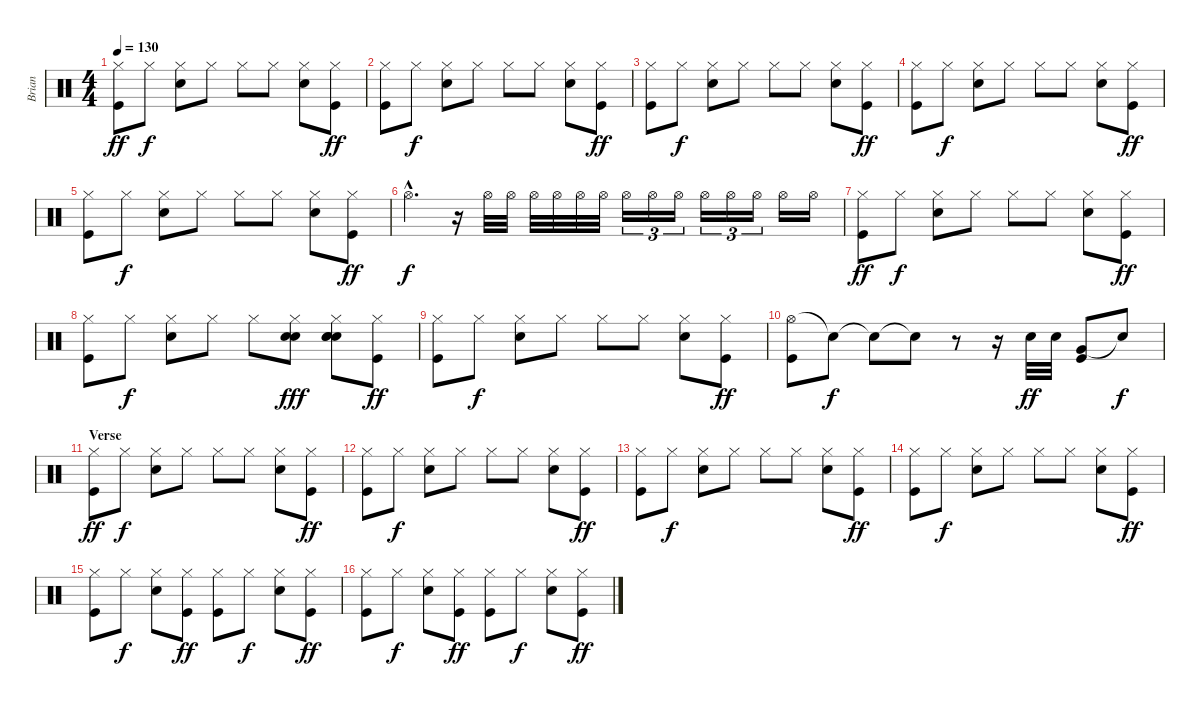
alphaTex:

\track ("Brian" "Brian") {instrument percussion}
\staff {score}
\articulation defaults
\ts (4 4)
\tempo 130
\clef neutral
\ks c
("Hi-Hat (closed)" "Kick (hit)").8{dy ff} "Hi-Hat (closed)".8{dy f} ("Hi-Hat (closed)" "Electric Snare (hit)").8 "Hi-Hat (closed)".8 "Hi-Hat (closed)".8 "Hi-Hat (closed)".8 ("Hi-Hat (closed)" "Electric Snare (hit)").8 ("Hi-Hat (closed)" "Kick (hit)").8{dy ff} |
("Hi-Hat (closed)" "Kick (hit)").8 "Hi-Hat (closed)".8{dy f} ("Hi-Hat (closed)" "Electric Snare (hit)").8 "Hi-Hat (closed)".8 "Hi-Hat (closed)".8 "Hi-Hat (closed)".8 ("Hi-Hat (closed)" "Electric Snare (hit)").8 ("Hi-Hat (closed)" "Kick (hit)").8{dy ff} |
("Hi-Hat (closed)" "Kick (hit)").8 "Hi-Hat (closed)".8{dy f} ("Hi-Hat (closed)" "Electric Snare (hit)").8 "Hi-Hat (closed)".8 "Hi-Hat (closed)".8 "Hi-Hat (closed)".8 ("Hi-Hat (closed)" "Electric Snare (hit)").8 ("Hi-Hat (closed)" "Kick (hit)").8{dy ff} |
("Hi-Hat (closed)" "Kick (hit)").8 "Hi-Hat (closed)".8{dy f} ("Hi-Hat (closed)" "Electric Snare (hit)").8 "Hi-Hat (closed)".8 "Hi-Hat (closed)".8 "Hi-Hat (closed)".8 ("Hi-Hat (closed)" "Electric Snare (hit)").8 ("Hi-Hat (closed)" "Kick (hit)").8{dy ff} |
("Hi-Hat (closed)" "Kick (hit)").8 "Hi-Hat (closed)".8{dy f} ("Hi-Hat (closed)" "Electric Snare (hit)").8 "Hi-Hat (closed)".8 "Hi-Hat (closed)".8 "Hi-Hat (closed)".8 ("Hi-Hat (closed)" "Electric Snare (hit)").8 ("Hi-Hat (closed)" "Kick (hit)").8{dy ff} |
"Hi-Hat (open)"{hac}.4{d dy f} r.16 "Hi-Hat (open)".32 "Hi-Hat (open)".32 "Hi-Hat (open)".32 "Hi-Hat (open)".32 "Hi-Hat (open)".32 "Hi-Hat (open)".32 "Hi-Hat (open)".16{tu (3 2)} "Hi-Hat (open)".16{tu (3 2)} "Hi-Hat (open)".16{tu (3 2)} "Hi-Hat (open)".16{tu (3 2)} "Hi-Hat (open)".16{tu (3 2)} "Hi-Hat (open)".16{tu (3 2)} "Hi-Hat (open)".16 "Hi-Hat (open)".16 |
("Hi-Hat (closed)" "Kick (hit)").8{dy ff} "Hi-Hat (closed)".8{dy f} ("Hi-Hat (closed)" "Electric Snare (hit)").8 "Hi-Hat (closed)".8 "Hi-Hat (closed)".8 "Hi-Hat (closed)".8 ("Hi-Hat (closed)" "Electric Snare (hit)").8 ("Hi-Hat (closed)" "Kick (hit)").8{dy ff} |
("Hi-Hat (closed)" "Kick (hit)").8 "Hi-Hat (closed)".8{dy f} ("Hi-Hat (closed)" "Electric Snare (hit)").8 "Hi-Hat (closed)".8 "Hi-Hat (closed)".8 ("Hand Clap (hit)" "Hi-Hat (closed)" "Hand Clap (hit)").8{dy fff} ("Hand Clap (hit)" "Hi-Hat (closed)" "Hand Clap (hit)" "Electric Snare (hit)").8 ("Hi-Hat (closed)" "Kick (hit)").8{dy ff} |
("Hi-Hat (closed)" "Kick (hit)").8 "Hi-Hat (closed)".8{dy f} ("Hi-Hat (closed)" "Electric Snare (hit)").8 "Hi-Hat (closed)".8 "Hi-Hat (closed)".8 "Hi-Hat (closed)".8 ("Hi-Hat (closed)" "Electric Snare (hit)").8 ("Hi-Hat (closed)" "Kick (hit)").8{dy ff} |
("Hi-Hat (open)" "Kick (hit)").8 "Snare (hit)"{t}.8{dy f} "Snare (hit)"{t}.8 "Snare (hit)"{t}.8 r.8 r.16 "Electric Snare (hit)".32{dy ff} "Electric Snare (hit)".32 ("Very Low Tom (hit)" "Kick (hit)").8 "Electric Snare (hit)"{t}.8{dy f} |
\section ("" "Verse")
("Hi-Hat (closed)" "Kick (hit)").8{dy ff} "Hi-Hat (closed)".8{dy f} ("Hi-Hat (closed)" "Electric Snare (hit)").8 "Hi-Hat (closed)".8 "Hi-Hat (closed)".8 "Hi-Hat (closed)".8 ("Hi-Hat (closed)" "Electric Snare (hit)").8 ("Hi-Hat (closed)" "Kick (hit)").8{dy ff} |
("Hi-Hat (closed)" "Kick (hit)").8 "Hi-Hat (closed)".8{dy f} ("Hi-Hat (closed)" "Electric Snare (hit)").8 "Hi-Hat (closed)".8 "Hi-Hat (closed)".8 "Hi-Hat (closed)".8 ("Hi-Hat (closed)" "Electric Snare (hit)").8 ("Hi-Hat (closed)" "Kick (hit)").8{dy ff} |
("Hi-Hat (closed)" "Kick (hit)").8 "Hi-Hat (closed)".8{dy f} ("Hi-Hat (closed)" "Electric Snare (hit)").8 "Hi-Hat (closed)".8 "Hi-Hat (closed)".8 "Hi-Hat (closed)".8 ("Hi-Hat (closed)" "Electric Snare (hit)").8 ("Hi-Hat (closed)" "Kick (hit)").8{dy ff} |
("Hi-Hat (closed)" "Kick (hit)").8 "Hi-Hat (closed)".8{dy f} ("Hi-Hat (closed)" "Electric Snare (hit)").8 "Hi-Hat (closed)".8 "Hi-Hat (closed)".8 "Hi-Hat (closed)".8 ("Hi-Hat (closed)" "Electric Snare (hit)").8 ("Hi-Hat (closed)" "Kick (hit)").8{dy ff} |
("Hi-Hat (closed)" "Kick (hit)").8 "Hi-Hat (closed)".8{dy f} ("Hi-Hat (closed)" "Electric Snare (hit)").8 ("Hi-Hat (closed)" "Kick (hit)").8{dy ff} ("Hi-Hat (closed)" "Kick (hit)").8 "Hi-Hat (closed)".8{dy f} ("Hi-Hat (closed)" "Electric Snare (hit)").8 ("Hi-Hat (closed)" "Kick (hit)").8{dy ff} |
("Hi-Hat (closed)" "Kick (hit)").8 "Hi-Hat (closed)".8{dy f} ("Hi-Hat (closed)" "Electric Snare (hit)").8 ("Hi-Hat (closed)" "Kick (hit)").8{dy ff} ("Hi-Hat (closed)" "Kick (hit)").8 "Hi-Hat (closed)".8{dy f} ("Hi-Hat (closed)" "Electric Snare (hit)").8 ("Hi-Hat (closed)" "Kick (hit)").8{dy ff}
